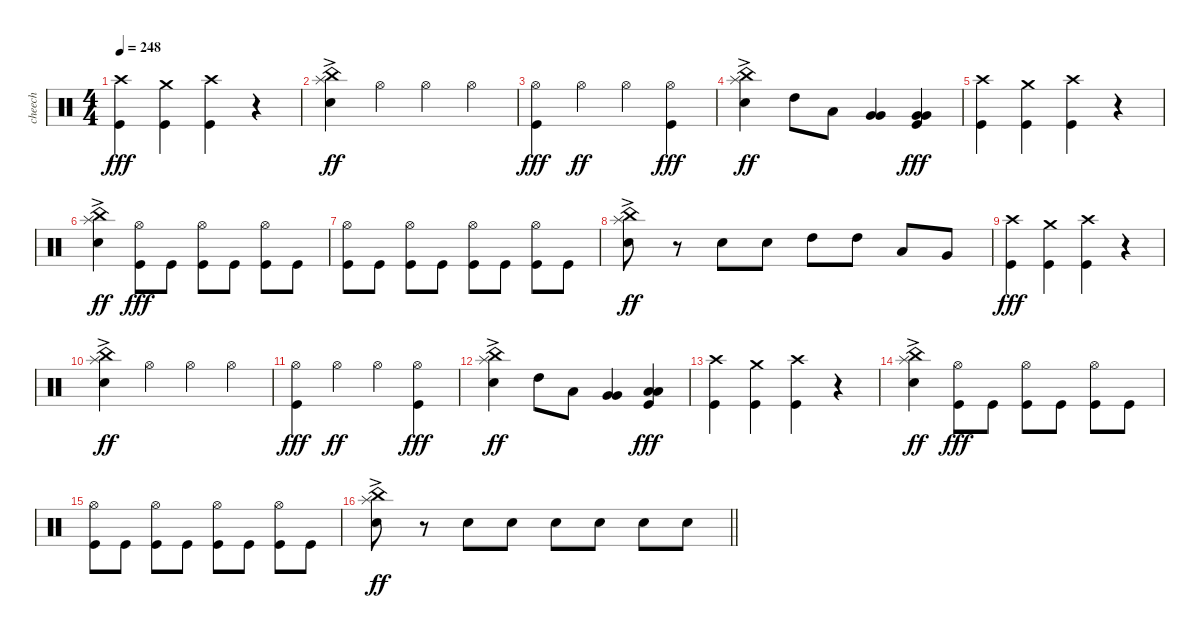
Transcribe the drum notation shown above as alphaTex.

\track ("cheech" "cheech") {instrument percussion}
\staff {score}
\articulation defaults
\ts (4 4)
\tempo 248
\clef neutral
\ks c
("Crash high (hit)" "Kick (hit)").4{dy fff} ("Crash medium (hit)" "Kick (hit)").4 ("Crash high (hit)" "Kick (hit)").4 r.4 |
("China (hit)"{ac} "Splash (hit)"{ac} "Electric Snare (hit)").4{dy ff} "Hi-Hat (open)".4 "Hi-Hat (open)".4 "Hi-Hat (open)".4 |
("Hi-Hat (open)" "Kick (hit)").4{dy fff} "Hi-Hat (open)".4{dy ff} "Hi-Hat (open)".4 ("Hi-Hat (open)" "Kick (hit)").4{dy fff} |
("China (hit)"{ac} "Splash (hit)"{ac} "Electric Snare (hit)").4{dy ff} "High Tom (hit)".8 "Low Tom (hit)".8 ("Very Low Tom (hit)" "Very Low Tom (hit)").4 ("Very Low Tom (hit)" "Very Low Tom (hit)" "Kick (hit)").4{dy fff} |
("Crash high (hit)" "Kick (hit)").4 ("Crash medium (hit)" "Kick (hit)").4 ("Crash high (hit)" "Kick (hit)").4 r.4 |
("China (hit)"{ac} "Splash (hit)"{ac} "Electric Snare (hit)").4{dy ff} ("Hi-Hat (open)" "Kick (hit)").8{dy fff} "Kick (hit)".8 ("Hi-Hat (open)" "Kick (hit)").8 "Kick (hit)".8 ("Hi-Hat (open)" "Kick (hit)").8 "Kick (hit)".8 |
("Hi-Hat (open)" "Kick (hit)").8 "Kick (hit)".8 ("Hi-Hat (open)" "Kick (hit)").8 "Kick (hit)".8 ("Hi-Hat (open)" "Kick (hit)").8 "Kick (hit)".8 ("Hi-Hat (open)" "Kick (hit)").8 "Kick (hit)".8 |
("China (hit)"{ac} "Splash (hit)"{ac} "Electric Snare (hit)").8{dy ff} r.8 "Electric Snare (hit)".8 "Electric Snare (hit)".8 "High Tom (hit)".8 "High Tom (hit)".8 "Low Tom (hit)".8 "Very Low Tom (hit)".8 |
("Crash high (hit)" "Kick (hit)").4{dy fff} ("Crash medium (hit)" "Kick (hit)").4 ("Crash high (hit)" "Kick (hit)").4 r.4 |
("China (hit)"{ac} "Splash (hit)"{ac} "Electric Snare (hit)").4{dy ff} "Hi-Hat (open)".4 "Hi-Hat (open)".4 "Hi-Hat (open)".4 |
("Hi-Hat (open)" "Kick (hit)").4{dy fff} "Hi-Hat (open)".4{dy ff} "Hi-Hat (open)".4 ("Hi-Hat (open)" "Kick (hit)").4{dy fff} |
("China (hit)"{ac} "Splash (hit)"{ac} "Electric Snare (hit)").4{dy ff} "High Tom (hit)".8 "Low Tom (hit)".8 ("Very Low Tom (hit)" "Very Low Tom (hit)").4 ("Low Floor Tom (hit)" "Low Floor Tom (hit)" "Kick (hit)").4{dy fff} |
("Crash high (hit)" "Kick (hit)").4 ("Crash medium (hit)" "Kick (hit)").4 ("Crash high (hit)" "Kick (hit)").4 r.4 |
("China (hit)"{ac} "Splash (hit)"{ac} "Electric Snare (hit)").4{dy ff} ("Hi-Hat (open)" "Kick (hit)").8{dy fff} "Kick (hit)".8 ("Hi-Hat (open)" "Kick (hit)").8 "Kick (hit)".8 ("Hi-Hat (open)" "Kick (hit)").8 "Kick (hit)".8 |
("Hi-Hat (open)" "Kick (hit)").8 "Kick (hit)".8 ("Hi-Hat (open)" "Kick (hit)").8 "Kick (hit)".8 ("Hi-Hat (open)" "Kick (hit)").8 "Kick (hit)".8 ("Hi-Hat (open)" "Kick (hit)").8 "Kick (hit)".8 |
\barLineRight lightlight
("China (hit)"{ac} "Splash (hit)"{ac} "Electric Snare (hit)").8{dy ff} r.8 "Electric Snare (hit)".8 "Electric Snare (hit)".8 "Electric Snare (hit)".8 "Electric Snare (hit)".8 "Electric Snare (hit)".8 "Electric Snare (hit)".8
